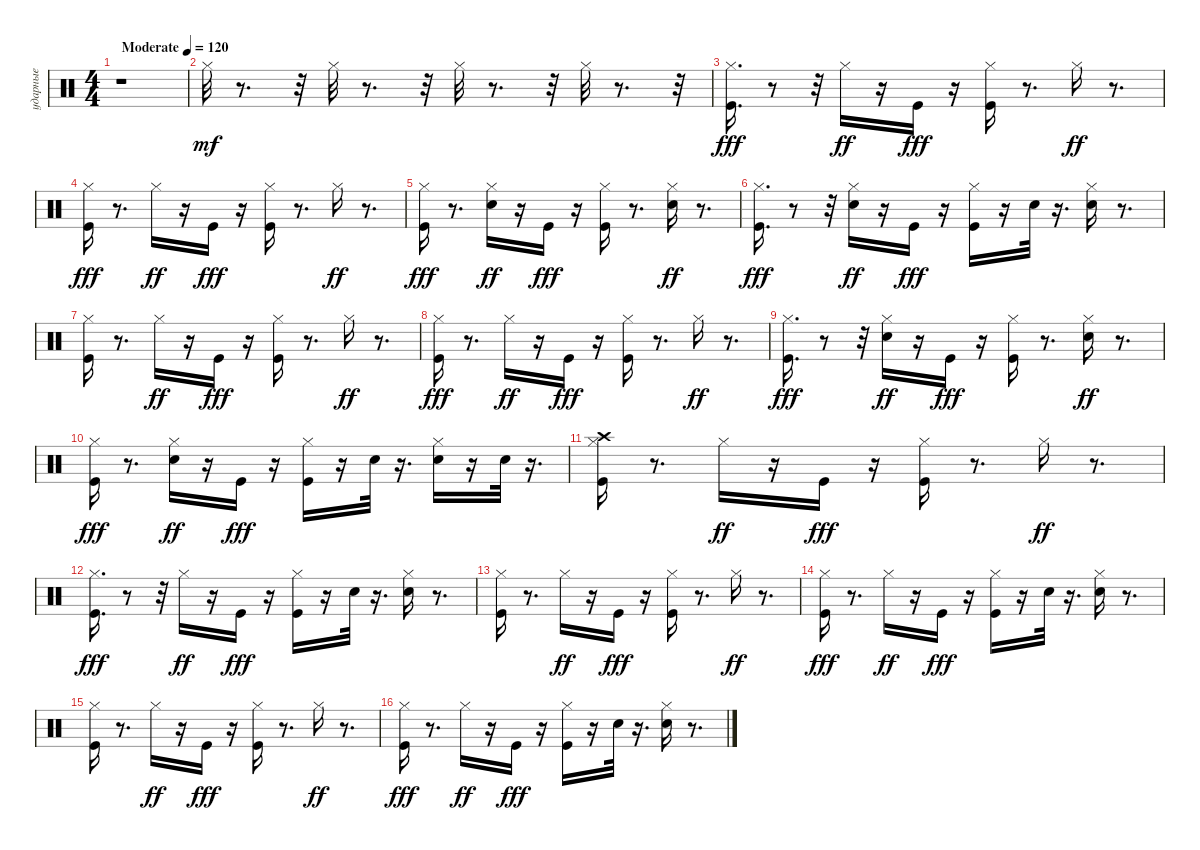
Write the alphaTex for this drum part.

\track ("ударные" "ударные") {instrument percussion}
\staff {score}
\articulation defaults
\ts (4 4)
\tempo (120 "Moderate")
\clef neutral
\ks c
r.1{dy mf} |
"Hi-Hat (closed)".32{volume 13} r.8{d} r.32 "Hi-Hat (closed)".32 r.8{d} r.32 "Hi-Hat (closed)".32 r.8{d} r.32 "Hi-Hat (closed)".32 r.8{d} r.32 |
("Hi-Hat (closed)" "Kick (hit)").16{d dy fff} r.8 r.32 "Hi-Hat (closed)".16{dy ff} r.16 "Kick (hit)".16{dy fff} r.16 ("Kick (hit)" "Hi-Hat (closed)").16 r.8{d} "Hi-Hat (closed)".16{dy ff} r.8{d} |
("Hi-Hat (closed)" "Kick (hit)").16{dy fff} r.8{d} "Hi-Hat (closed)".16{dy ff} r.16 "Kick (hit)".16{dy fff} r.16 ("Kick (hit)" "Hi-Hat (closed)").16 r.8{d} "Hi-Hat (closed)".16{dy ff} r.8{d} |
("Hi-Hat (closed)" "Kick (hit)").16{dy fff} r.8{d} ("Electric Snare (hit)" "Hi-Hat (closed)").16{dy ff} r.16 "Kick (hit)".16{dy fff} r.16 ("Kick (hit)" "Hi-Hat (closed)").16 r.8{d} ("Electric Snare (hit)" "Hi-Hat (closed)").16{dy ff} r.8{d} |
("Hi-Hat (closed)" "Kick (hit)").16{d dy fff} r.8 r.32 ("Electric Snare (hit)" "Hi-Hat (closed)").16{dy ff} r.16 "Kick (hit)".16{dy fff} r.16 ("Kick (hit)" "Hi-Hat (closed)").16 r.16 "Electric Snare (hit)".32 r.16{d} ("Electric Snare (hit)" "Hi-Hat (closed)").16 r.8{d} |
("Hi-Hat (closed)" "Kick (hit)").16 r.8{d} "Hi-Hat (closed)".16{dy ff} r.16 "Kick (hit)".16{dy fff} r.16 ("Kick (hit)" "Hi-Hat (closed)").16 r.8{d} "Hi-Hat (closed)".16{dy ff} r.8{d} |
("Hi-Hat (closed)" "Kick (hit)").16{dy fff} r.8{d} "Hi-Hat (closed)".16{dy ff} r.16 "Kick (hit)".16{dy fff} r.16 ("Kick (hit)" "Hi-Hat (closed)").16 r.8{d} "Hi-Hat (closed)".16{dy ff} r.8{d} |
("Hi-Hat (closed)" "Kick (hit)").16{d dy fff} r.8 r.32 ("Electric Snare (hit)" "Hi-Hat (closed)").16{dy ff} r.16 "Kick (hit)".16{dy fff} r.16 ("Kick (hit)" "Hi-Hat (closed)").16 r.8{d} ("Electric Snare (hit)" "Hi-Hat (closed)").16{dy ff} r.8{d} |
("Hi-Hat (closed)" "Kick (hit)").16{dy fff} r.8{d} ("Electric Snare (hit)" "Hi-Hat (closed)").16{dy ff} r.16 "Kick (hit)".16{dy fff} r.16 ("Kick (hit)" "Hi-Hat (closed)").16 r.16 "Electric Snare (hit)".32 r.16{d} ("Electric Snare (hit)" "Hi-Hat (closed)").16 r.16 "Electric Snare (hit)".32 r.16{d} |
("Crash high (hit)" "Hi-Hat (closed)" "Kick (hit)").16 r.8{d} "Hi-Hat (closed)".16{dy ff} r.16 "Kick (hit)".16{dy fff} r.16 ("Kick (hit)" "Hi-Hat (closed)").16 r.8{d} "Hi-Hat (closed)".16{dy ff} r.8{d} |
("Kick (hit)" "Hi-Hat (closed)").16{d dy fff} r.8 r.32 "Hi-Hat (closed)".16{dy ff} r.16 "Kick (hit)".16{dy fff} r.16 ("Kick (hit)" "Hi-Hat (closed)").16 r.16 "Electric Snare (hit)".32 r.16{d} ("Electric Snare (hit)" "Hi-Hat (closed)").16 r.8{d} |
("Hi-Hat (closed)" "Kick (hit)").16 r.8{d} "Hi-Hat (closed)".16{dy ff} r.16 "Kick (hit)".16{dy fff} r.16 ("Kick (hit)" "Hi-Hat (closed)").16 r.8{d} "Hi-Hat (closed)".16{dy ff} r.8{d} |
("Hi-Hat (closed)" "Kick (hit)").16{dy fff} r.8{d} "Hi-Hat (closed)".16{dy ff} r.16 "Kick (hit)".16{dy fff} r.16 ("Kick (hit)" "Hi-Hat (closed)").16 r.16 "Electric Snare (hit)".32 r.16{d} ("Electric Snare (hit)" "Hi-Hat (closed)").16 r.8{d} |
("Hi-Hat (closed)" "Kick (hit)").16 r.8{d} "Hi-Hat (closed)".16{dy ff} r.16 "Kick (hit)".16{dy fff} r.16 ("Kick (hit)" "Hi-Hat (closed)").16 r.8{d} "Hi-Hat (closed)".16{dy ff} r.8{d} |
("Hi-Hat (closed)" "Kick (hit)").16{dy fff} r.8{d} "Hi-Hat (closed)".16{dy ff} r.16 "Kick (hit)".16{dy fff} r.16 ("Kick (hit)" "Hi-Hat (closed)").16 r.16 "Electric Snare (hit)".32 r.16{d} ("Electric Snare (hit)" "Hi-Hat (closed)").16 r.8{d}
